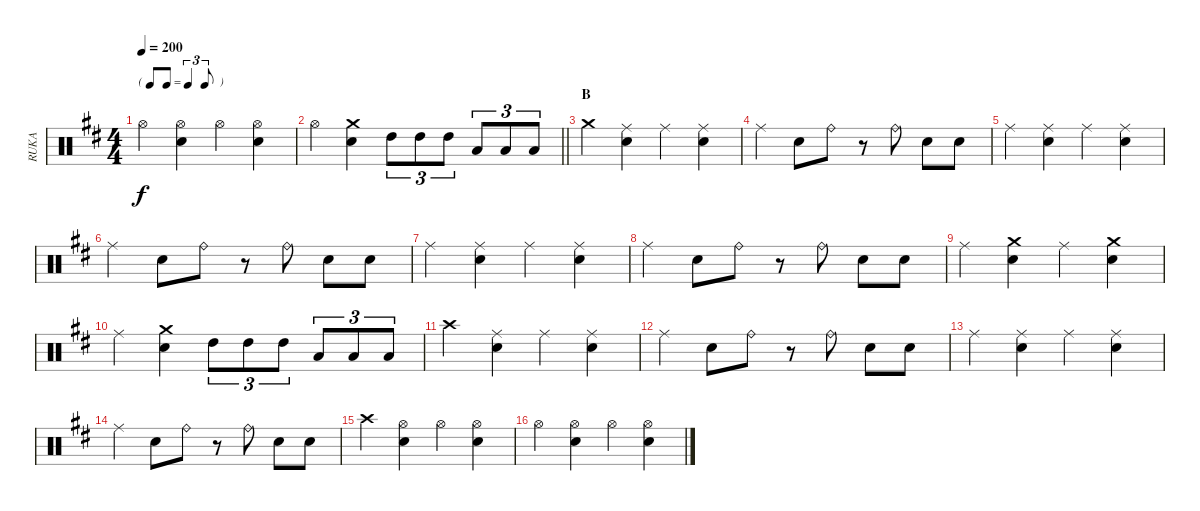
\track ("RUKA" "RUKA") {instrument percussion}
\staff {score}
\articulation defaults
\ts (4 4)
\tf triplet8th
\tempo 200
\clef neutral
\ks d "Hi-Hat (open)".4{dy f}
("Hi-Hat (open)" "Snare (hit) 2").4 "Hi-Hat (open)".4 ("Hi-Hat (open)" "Snare (hit) 2").4 |
\barLineRight lightlight "Hi-Hat (open)".4
("Crash medium (hit)" "Snare (hit) 2").4 "High Tom (hit)".8{tu (3 2)} "High Tom (hit)".8{tu (3 2)} "High Tom (hit)".8{tu (3 2)} "Low Tom (hit)".8{tu (3 2)} "Low Tom (hit)".8{tu (3 2)} "Low Tom (hit)".8{tu (3 2)} |
\section ("" "B")
"Crash medium (hit)".4 ("Ride (middle)" "Snare (hit) 2").4 "Ride (middle)".4 ("Ride (middle)" "Snare (hit) 2").4 |
"Ride (middle)".4 "Snare (hit) 2".8 "Ride (bell)".8 r.8 "Ride (bell)".8 "Snare (hit) 2".8 "Snare (hit) 2".8 |
"Ride (middle)".4 ("Ride (middle)" "Snare (hit) 2").4 "Ride (middle)".4 ("Ride (middle)" "Snare (hit) 2").4 |
"Ride (middle)".4 "Snare (hit) 2".8 "Ride (bell)".8 r.8 "Ride (bell)".8 "Snare (hit) 2".8 "Snare (hit) 2".8 |
"Ride (middle)".4 ("Ride (middle)" "Snare (hit) 2").4 "Ride (middle)".4 ("Ride (middle)" "Snare (hit) 2").4 |
"Ride (middle)".4 "Snare (hit) 2".8 "Ride (bell)".8 r.8 "Ride (bell)".8 "Snare (hit) 2".8 "Snare (hit) 2".8 |
"Ride (middle)".4 ("Crash medium (hit)" "Snare (hit) 2").4 "Ride (middle)".4 ("Crash medium (hit)" "Snare (hit) 2").4 |
"Ride (middle)".4 ("Crash medium (hit)" "Snare (hit) 2").4 "High Tom (hit)".8{tu (3 2)} "High Tom (hit)".8{tu (3 2)} "High Tom (hit)".8{tu (3 2)} "Low Tom (hit)".8{tu (3 2)} "Low Tom (hit)".8{tu (3 2)} "Low Tom (hit)".8{tu (3 2)} |
"Crash high (hit)".4 ("Ride (middle)" "Snare (hit) 2").4 "Ride (middle)".4 ("Ride (middle)" "Snare (hit) 2").4 |
"Ride (middle)".4 "Snare (hit) 2".8 "Ride (bell)".8 r.8 "Ride (bell)".8 "Snare (hit) 2".8 "Snare (hit) 2".8 |
"Ride (middle)".4 ("Ride (middle)" "Snare (hit) 2").4 "Ride (middle)".4 ("Ride (middle)" "Snare (hit) 2").4 |
"Ride (middle)".4 "Snare (hit) 2".8 "Ride (bell)".8 r.8 "Ride (bell)".8 "Snare (hit) 2".8 "Snare (hit) 2".8 |
"Crash high (hit)".4 ("Hi-Hat (open)" "Snare (hit) 2").4 "Hi-Hat (open)".4 ("Hi-Hat (open)" "Snare (hit) 2").4 |
"Hi-Hat (open)".4 ("Hi-Hat (open)" "Snare (hit) 2").4 "Hi-Hat (open)".4 ("Hi-Hat (open)" "Snare (hit) 2").4
